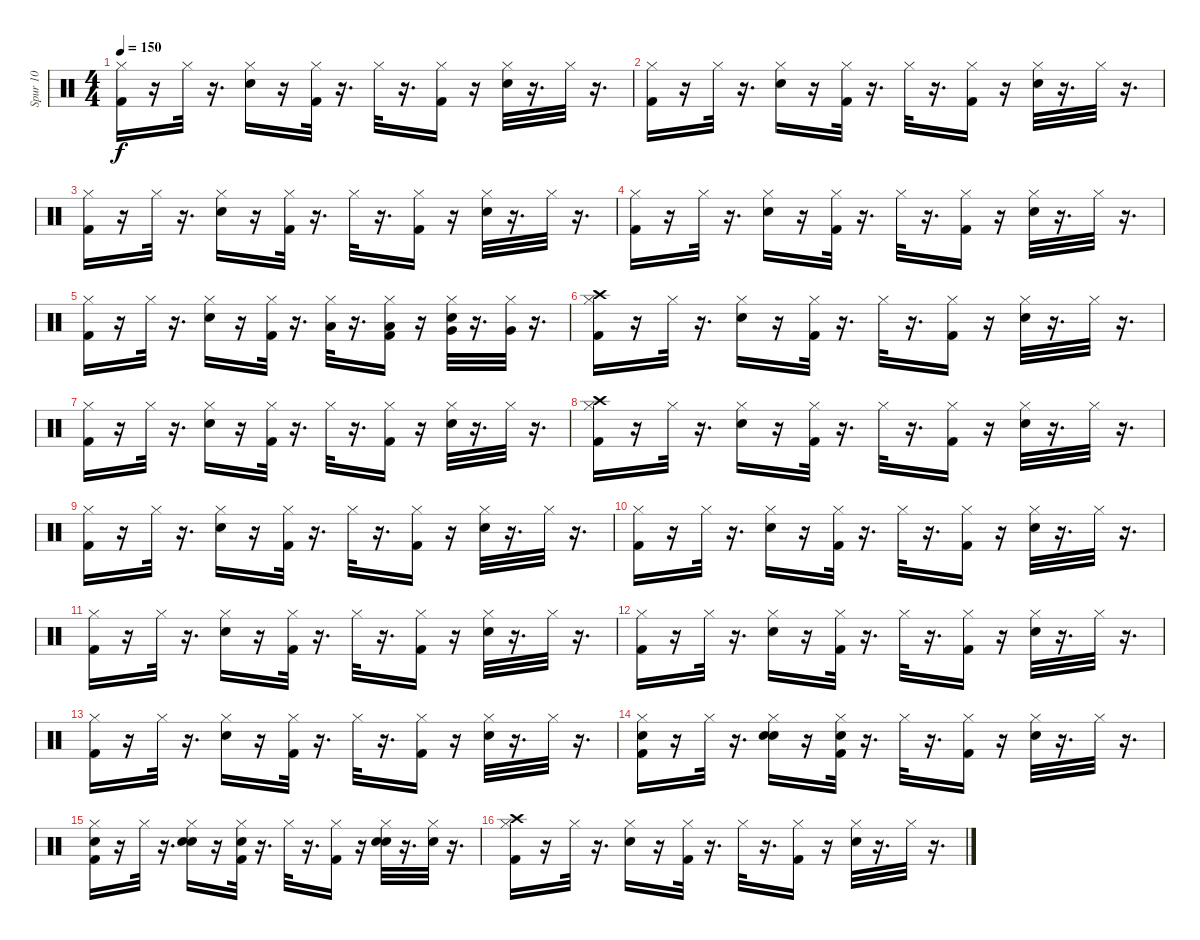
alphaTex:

\track ("Spur 10" "Spur 10") {instrument percussion}
\staff {score}
\articulation defaults
\ts (4 4)
\tempo 150
\clef neutral
\ks c
("Kick (hit) 2" "Hi-Hat (closed)").16{dy f} r.16 "Hi-Hat (closed)".32 r.16{d} ("Electric Snare (hit)" "Hi-Hat (closed)").16 r.16 ("Kick (hit) 2" "Hi-Hat (closed)").32 r.16{d} "Hi-Hat (closed)".32 r.16{d} ("Kick (hit) 2" "Hi-Hat (closed)").16 r.16 ("Electric Snare (hit)" "Hi-Hat (closed)").32 r.16{d} "Hi-Hat (closed)".32 r.16{d} |
("Hi-Hat (closed)" "Kick (hit) 2").16 r.16 "Hi-Hat (closed)".32 r.16{d} ("Electric Snare (hit)" "Hi-Hat (closed)").16 r.16 ("Hi-Hat (closed)" "Kick (hit) 2").32 r.16{d} "Hi-Hat (closed)".32 r.16{d} ("Hi-Hat (closed)" "Kick (hit) 2").16 r.16 ("Hi-Hat (closed)" "Electric Snare (hit)").32 r.16{d} "Hi-Hat (closed)".32 r.16{d} |
("Kick (hit) 2" "Hi-Hat (closed)").16 r.16 "Hi-Hat (closed)".32 r.16{d} ("Electric Snare (hit)" "Hi-Hat (closed)").16 r.16 ("Kick (hit) 2" "Hi-Hat (closed)").32 r.16{d} "Hi-Hat (closed)".32 r.16{d} ("Kick (hit) 2" "Hi-Hat (closed)").16 r.16 ("Electric Snare (hit)" "Hi-Hat (closed)").32 r.16{d} "Hi-Hat (closed)".32 r.16{d} |
("Hi-Hat (closed)" "Kick (hit) 2").16 r.16 "Hi-Hat (closed)".32 r.16{d} ("Electric Snare (hit)" "Hi-Hat (closed)").16 r.16 ("Kick (hit) 2" "Hi-Hat (closed)").32 r.16{d} "Hi-Hat (closed)".32 r.16{d} ("Kick (hit) 2" "Hi-Hat (closed)").16 r.16 ("Electric Snare (hit)" "Hi-Hat (closed)").32 r.16{d} "Hi-Hat (closed)".32 r.16{d} |
("Kick (hit) 2" "Hi-Hat (closed)").16 r.16 "Hi-Hat (closed)".32 r.16{d} ("Electric Snare (hit)" "Hi-Hat (closed)").16 r.16 ("Kick (hit) 2" "Hi-Hat (closed)").32 r.16{d} ("Low Tom (hit)" "Hi-Hat (closed)").32 r.16{d} ("Kick (hit) 2" "Low Tom (hit)" "Hi-Hat (closed)").16 r.16 ("Electric Snare (hit)" "Very Low Tom (hit)" "Hi-Hat (closed)").32 r.16{d} ("Very Low Tom (hit)" "Hi-Hat (closed)").32 r.16{d} |
("Crash high (hit)" "Hi-Hat (closed)" "Kick (hit) 2").16 r.16 "Hi-Hat (closed)".32 r.16{d} ("Electric Snare (hit)" "Hi-Hat (closed)").16 r.16 ("Kick (hit) 2" "Hi-Hat (closed)").32 r.16{d} "Hi-Hat (closed)".32 r.16{d} ("Kick (hit) 2" "Hi-Hat (closed)").16 r.16 ("Electric Snare (hit)" "Hi-Hat (closed)").32 r.16{d} "Hi-Hat (closed)".32 r.16{d} |
("Kick (hit) 2" "Hi-Hat (closed)").16 r.16 "Hi-Hat (closed)".32 r.16{d} ("Electric Snare (hit)" "Hi-Hat (closed)").16 r.16 ("Kick (hit) 2" "Hi-Hat (closed)").32 r.16{d} "Hi-Hat (closed)".32 r.16{d} ("Kick (hit) 2" "Hi-Hat (closed)").16 r.16 ("Electric Snare (hit)" "Hi-Hat (closed)").32 r.16{d} "Hi-Hat (closed)".32 r.16{d} |
("Crash high (hit)" "Hi-Hat (closed)" "Kick (hit) 2").16 r.16 "Hi-Hat (closed)".32 r.16{d} ("Hi-Hat (closed)" "Electric Snare (hit)").16 r.16 ("Hi-Hat (closed)" "Kick (hit) 2").32 r.16{d} "Hi-Hat (closed)".32 r.16{d} ("Kick (hit) 2" "Hi-Hat (closed)").16 r.16 ("Electric Snare (hit)" "Hi-Hat (closed)").32 r.16{d} "Hi-Hat (closed)".32 r.16{d} |
("Kick (hit) 2" "Hi-Hat (closed)").16 r.16 "Hi-Hat (closed)".32 r.16{d} ("Electric Snare (hit)" "Hi-Hat (closed)").16 r.16 ("Kick (hit) 2" "Hi-Hat (closed)").32 r.16{d} "Hi-Hat (closed)".32 r.16{d} ("Kick (hit) 2" "Hi-Hat (closed)").16 r.16 ("Electric Snare (hit)" "Hi-Hat (closed)").32 r.16{d} "Hi-Hat (closed)".32 r.16{d} |
("Hi-Hat (closed)" "Kick (hit) 2").16 r.16 "Hi-Hat (closed)".32 r.16{d} ("Electric Snare (hit)" "Hi-Hat (closed)").16 r.16 ("Kick (hit) 2" "Hi-Hat (closed)").32 r.16{d} "Hi-Hat (closed)".32 r.16{d} ("Kick (hit) 2" "Hi-Hat (closed)").16 r.16 ("Electric Snare (hit)" "Hi-Hat (closed)").32 r.16{d} "Hi-Hat (closed)".32 r.16{d} |
("Kick (hit) 2" "Hi-Hat (closed)").16 r.16 "Hi-Hat (closed)".32 r.16{d} ("Electric Snare (hit)" "Hi-Hat (closed)").16 r.16 ("Kick (hit) 2" "Hi-Hat (closed)").32 r.16{d} "Hi-Hat (closed)".32 r.16{d} ("Kick (hit) 2" "Hi-Hat (closed)").16 r.16 ("Electric Snare (hit)" "Hi-Hat (closed)").32 r.16{d} "Hi-Hat (closed)".32 r.16{d} |
("Hi-Hat (closed)" "Kick (hit) 2").16 r.16 "Hi-Hat (closed)".32 r.16{d} ("Hi-Hat (closed)" "Electric Snare (hit)").16 r.16 ("Kick (hit) 2" "Hi-Hat (closed)").32 r.16{d} "Hi-Hat (closed)".32 r.16{d} ("Hi-Hat (closed)" "Kick (hit) 2").16 r.16 ("Electric Snare (hit)" "Hi-Hat (closed)").32 r.16{d} "Hi-Hat (closed)".32 r.16{d} |
("Hi-Hat (closed)" "Kick (hit) 2").16 r.16 "Hi-Hat (closed)".32 r.16{d} ("Electric Snare (hit)" "Hi-Hat (closed)").16 r.16 ("Kick (hit) 2" "Hi-Hat (closed)").32 r.16{d} "Hi-Hat (closed)".32 r.16{d} ("Kick (hit) 2" "Hi-Hat (closed)").16 r.16 ("Electric Snare (hit)" "Hi-Hat (closed)").32 r.16{d} "Hi-Hat (closed)".32 r.16{d} |
("Kick (hit) 2" "Hand Clap (hit)" "Hi-Hat (closed)").16 r.16 "Hi-Hat (closed)".32 r.16{d} ("Electric Snare (hit)" "Hand Clap (hit)" "Hi-Hat (closed)").16 r.16 ("Kick (hit) 2" "Hi-Hat (closed)" "Hand Clap (hit)").32 r.16{d} "Hi-Hat (closed)".32 r.16{d} ("Kick (hit) 2" "Hi-Hat (closed)").16 r.16 ("Electric Snare (hit)" "Hi-Hat (closed)").32 r.16{d} "Hi-Hat (closed)".32 r.16{d} |
("Hand Clap (hit)" "Kick (hit) 2" "Hi-Hat (closed)").16 r.16 "Hi-Hat (closed)".32 r.16{d} ("Electric Snare (hit)" "Hand Clap (hit)" "Hi-Hat (closed)").16 r.16 ("Kick (hit) 2" "Hi-Hat (closed)" "Hand Clap (hit)").32 r.16{d} "Hi-Hat (closed)".32 r.16{d} ("Kick (hit) 2" "Hi-Hat (closed)").16 r.16 ("Electric Snare (hit)" "Hand Clap (hit)" "Hi-Hat (closed)").32 r.16{d} ("Hi-Hat (closed)" "Hand Clap (hit)").32 r.16{d} |
("Hi-Hat (closed)" "Crash high (hit)" "Kick (hit) 2").16 r.16 "Hi-Hat (closed)".32 r.16{d} ("Electric Snare (hit)" "Hi-Hat (closed)").16 r.16 ("Hi-Hat (closed)" "Kick (hit) 2").32 r.16{d} "Hi-Hat (closed)".32 r.16{d} ("Kick (hit) 2" "Hi-Hat (closed)").16 r.16 ("Electric Snare (hit)" "Hi-Hat (closed)").32 r.16{d} "Hi-Hat (closed)".32 r.16{d}
